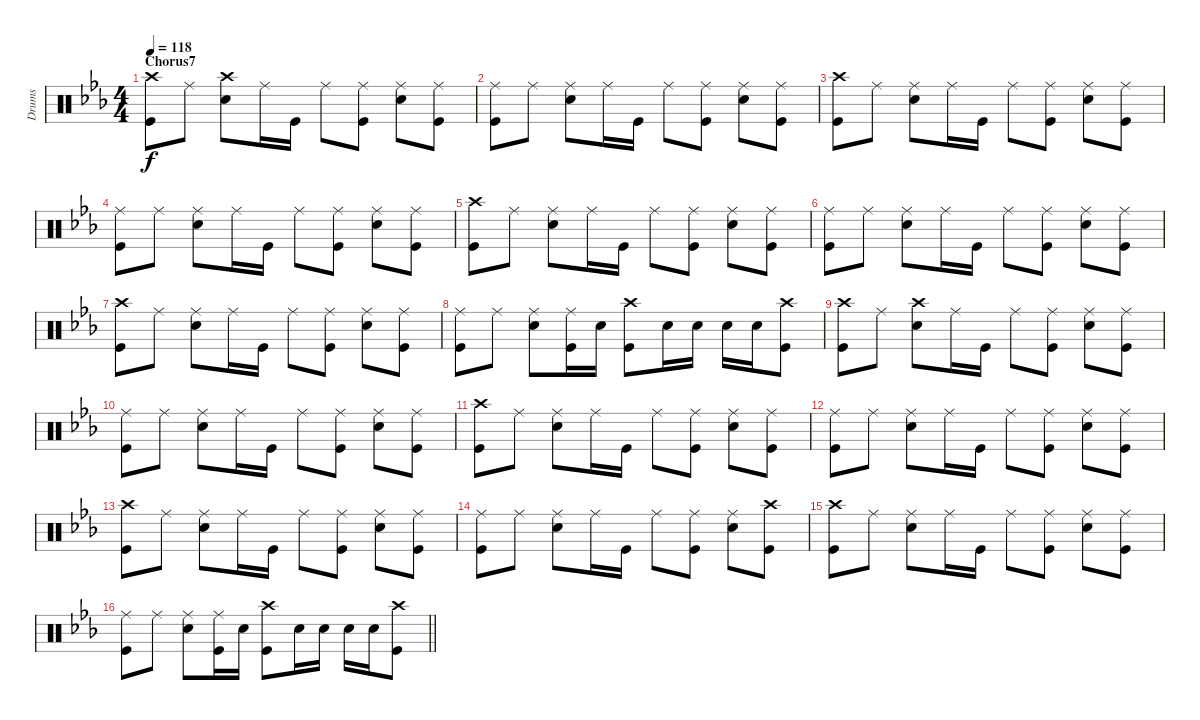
\track ("Drums" "Drums") {instrument percussion}
\staff {score}
\articulation defaults
\ts (4 4)
\section ("" "Chorus7")
\tempo 118
\clef neutral
\ks cminor
("Crash high (hit)" "Kick (hit)").8{dy f} "Ride (middle)".8 ("Crash high (hit)" "Snare (hit) 2").8 "Ride (middle)".16 "Kick (hit)".16 "Ride (middle)".8 ("Ride (middle)" "Kick (hit)").8 ("Ride (middle)" "Snare (hit) 2").8 ("Ride (middle)" "Kick (hit)").8 |
("Ride (middle)" "Kick (hit)").8 "Ride (middle)".8 ("Ride (middle)" "Snare (hit) 2").8 "Ride (middle)".16 "Kick (hit)".16 "Ride (middle)".8 ("Ride (middle)" "Kick (hit)").8 ("Ride (middle)" "Snare (hit) 2").8 ("Ride (middle)" "Kick (hit)").8 |
("Crash high (hit)" "Kick (hit)").8 "Ride (middle)".8 ("Ride (middle)" "Snare (hit) 2").8 "Ride (middle)".16 "Kick (hit)".16 "Ride (middle)".8 ("Ride (middle)" "Kick (hit)").8 ("Ride (middle)" "Snare (hit) 2").8 ("Ride (middle)" "Kick (hit)").8 |
("Ride (middle)" "Kick (hit)").8 "Ride (middle)".8 ("Ride (middle)" "Snare (hit) 2").8 "Ride (middle)".16 "Kick (hit)".16 "Ride (middle)".8 ("Ride (middle)" "Kick (hit)").8 ("Ride (middle)" "Snare (hit) 2").8 ("Ride (middle)" "Kick (hit)").8 |
("Crash high (hit)" "Kick (hit)").8 "Ride (middle)".8 ("Ride (middle)" "Snare (hit) 2").8 "Ride (middle)".16 "Kick (hit)".16 "Ride (middle)".8 ("Ride (middle)" "Kick (hit)").8 ("Ride (middle)" "Snare (hit) 2").8 ("Ride (middle)" "Kick (hit)").8 |
("Ride (middle)" "Kick (hit)").8 "Ride (middle)".8 ("Ride (middle)" "Snare (hit) 2").8 "Ride (middle)".16 "Kick (hit)".16 "Ride (middle)".8 ("Ride (middle)" "Kick (hit)").8 ("Ride (middle)" "Snare (hit) 2").8 ("Ride (middle)" "Kick (hit)").8 |
("Crash high (hit)" "Kick (hit)").8 "Ride (middle)".8 ("Ride (middle)" "Snare (hit) 2").8 "Ride (middle)".16 "Kick (hit)".16 "Ride (middle)".8 ("Ride (middle)" "Kick (hit)").8 ("Ride (middle)" "Snare (hit) 2").8 ("Ride (middle)" "Kick (hit)").8 |
("Ride (middle)" "Kick (hit)").8 "Ride (middle)".8 ("Ride (middle)" "Snare (hit) 2").8 ("Ride (middle)" "Kick (hit)").16 "Snare (hit) 2".16 ("Crash high (hit)" "Kick (hit)").8 "Snare (hit) 2".16 "Snare (hit) 2".16 "Snare (hit) 2".16 "Snare (hit) 2".16 ("Crash high (hit)" "Kick (hit)").8 |
("Crash high (hit)" "Kick (hit)").8 "Ride (middle)".8 ("Crash high (hit)" "Snare (hit) 2").8 "Ride (middle)".16 "Kick (hit)".16 "Ride (middle)".8 ("Ride (middle)" "Kick (hit)").8 ("Ride (middle)" "Snare (hit) 2").8 ("Ride (middle)" "Kick (hit)").8 |
("Ride (middle)" "Kick (hit)").8 "Ride (middle)".8 ("Ride (middle)" "Snare (hit) 2").8 "Ride (middle)".16 "Kick (hit)".16 "Ride (middle)".8 ("Ride (middle)" "Kick (hit)").8 ("Ride (middle)" "Snare (hit) 2").8 ("Ride (middle)" "Kick (hit)").8 |
("Crash high (hit)" "Kick (hit)").8 "Ride (middle)".8 ("Ride (middle)" "Snare (hit) 2").8 "Ride (middle)".16 "Kick (hit)".16 "Ride (middle)".8 ("Ride (middle)" "Kick (hit)").8 ("Ride (middle)" "Snare (hit) 2").8 ("Ride (middle)" "Kick (hit)").8 |
("Ride (middle)" "Kick (hit)").8 "Ride (middle)".8 ("Ride (middle)" "Snare (hit) 2").8 "Ride (middle)".16 "Kick (hit)".16 "Ride (middle)".8 ("Ride (middle)" "Kick (hit)").8 ("Ride (middle)" "Snare (hit) 2").8 ("Ride (middle)" "Kick (hit)").8 |
("Crash high (hit)" "Kick (hit)").8 "Ride (middle)".8 ("Ride (middle)" "Snare (hit) 2").8 "Ride (middle)".16 "Kick (hit)".16 "Ride (middle)".8 ("Ride (middle)" "Kick (hit)").8 ("Ride (middle)" "Snare (hit) 2").8 ("Ride (middle)" "Kick (hit)").8 |
("Ride (middle)" "Kick (hit)").8 "Ride (middle)".8 ("Ride (middle)" "Snare (hit) 2").8 "Ride (middle)".16 "Kick (hit)".16 "Ride (middle)".8 ("Ride (middle)" "Kick (hit)").8 ("Ride (middle)" "Snare (hit) 2").8 ("Crash high (hit)" "Kick (hit)").8 |
("Crash high (hit)" "Kick (hit)").8 "Ride (middle)".8 ("Ride (middle)" "Snare (hit) 2").8 "Ride (middle)".16 "Kick (hit)".16 "Ride (middle)".8 ("Ride (middle)" "Kick (hit)").8 ("Ride (middle)" "Snare (hit) 2").8 ("Ride (middle)" "Kick (hit)").8 |
\barLineRight lightlight
("Ride (middle)" "Kick (hit)").8 "Ride (middle)".8 ("Ride (middle)" "Snare (hit) 2").8 ("Ride (middle)" "Kick (hit)").16 "Snare (hit) 2".16 ("Crash high (hit)" "Kick (hit)").8 "Snare (hit) 2".16 "Snare (hit) 2".16 "Snare (hit) 2".16 "Snare (hit) 2".16 ("Crash high (hit)" "Kick (hit)").8
